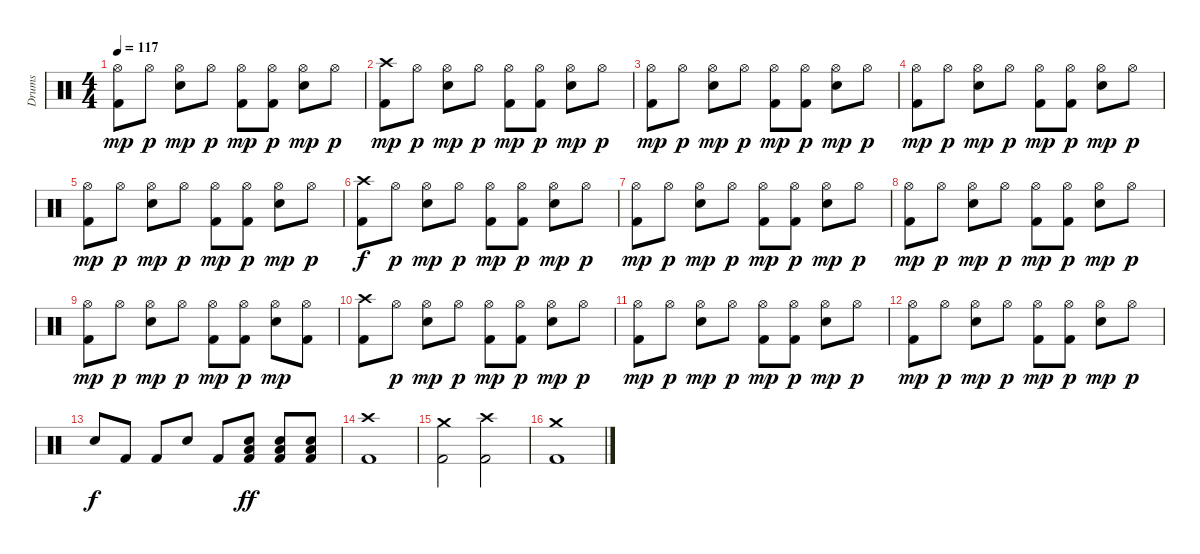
\track ("Drums" "Drums") {instrument percussion}
\staff {score}
\articulation defaults
\ts (4 4)
\tempo 117
\clef neutral
\ks c
("Hi-Hat (open)" "Kick (hit) 2").8{dy mp} "Hi-Hat (open)".8{dy p} ("Hi-Hat (open)" "Snare (hit) 2").8{dy mp} "Hi-Hat (open)".8{dy p} ("Hi-Hat (open)" "Kick (hit) 2").8{dy mp} ("Hi-Hat (open)" "Kick (hit) 2").8{dy p} ("Hi-Hat (open)" "Snare (hit) 2").8{dy mp} "Hi-Hat (open)".8{dy p} |
("Crash high (hit)" "Kick (hit) 2").8{dy mp} "Hi-Hat (open)".8{dy p} ("Hi-Hat (open)" "Snare (hit) 2").8{dy mp} "Hi-Hat (open)".8{dy p} ("Hi-Hat (open)" "Kick (hit) 2").8{dy mp} ("Hi-Hat (open)" "Kick (hit) 2").8{dy p} ("Hi-Hat (open)" "Snare (hit) 2").8{dy mp} "Hi-Hat (open)".8{dy p} |
("Hi-Hat (open)" "Kick (hit) 2").8{dy mp} "Hi-Hat (open)".8{dy p} ("Hi-Hat (open)" "Snare (hit) 2").8{dy mp} "Hi-Hat (open)".8{dy p} ("Hi-Hat (open)" "Kick (hit) 2").8{dy mp} ("Hi-Hat (open)" "Kick (hit) 2").8{dy p} ("Hi-Hat (open)" "Snare (hit) 2").8{dy mp} "Hi-Hat (open)".8{dy p} |
("Hi-Hat (open)" "Kick (hit) 2").8{dy mp} "Hi-Hat (open)".8{dy p} ("Hi-Hat (open)" "Snare (hit) 2").8{dy mp} "Hi-Hat (open)".8{dy p} ("Hi-Hat (open)" "Kick (hit) 2").8{dy mp} ("Hi-Hat (open)" "Kick (hit) 2").8{dy p} ("Hi-Hat (open)" "Snare (hit) 2").8{dy mp} "Hi-Hat (open)".8{dy p} |
("Hi-Hat (open)" "Kick (hit) 2").8{dy mp} "Hi-Hat (open)".8{dy p} ("Hi-Hat (open)" "Snare (hit) 2").8{dy mp} "Hi-Hat (open)".8{dy p} ("Hi-Hat (open)" "Kick (hit) 2").8{dy mp} ("Hi-Hat (open)" "Kick (hit) 2").8{dy p} ("Hi-Hat (open)" "Snare (hit) 2").8{dy mp} "Hi-Hat (open)".8{dy p} |
("Crash high (hit)" "Kick (hit) 2").8{dy f} "Hi-Hat (open)".8{dy p} ("Hi-Hat (open)" "Snare (hit) 2").8{dy mp} "Hi-Hat (open)".8{dy p} ("Hi-Hat (open)" "Kick (hit) 2").8{dy mp} ("Hi-Hat (open)" "Kick (hit) 2").8{dy p} ("Hi-Hat (open)" "Snare (hit) 2").8{dy mp} "Hi-Hat (open)".8{dy p} |
("Hi-Hat (open)" "Kick (hit) 2").8{dy mp} "Hi-Hat (open)".8{dy p} ("Hi-Hat (open)" "Snare (hit) 2").8{dy mp} "Hi-Hat (open)".8{dy p} ("Hi-Hat (open)" "Kick (hit) 2").8{dy mp} ("Hi-Hat (open)" "Kick (hit) 2").8{dy p} ("Hi-Hat (open)" "Snare (hit) 2").8{dy mp} "Hi-Hat (open)".8{dy p} |
("Hi-Hat (open)" "Kick (hit) 2").8{dy mp} "Hi-Hat (open)".8{dy p} ("Hi-Hat (open)" "Snare (hit) 2").8{dy mp} "Hi-Hat (open)".8{dy p} ("Hi-Hat (open)" "Kick (hit) 2").8{dy mp} ("Hi-Hat (open)" "Kick (hit) 2").8{dy p} ("Hi-Hat (open)" "Snare (hit) 2").8{dy mp} "Hi-Hat (open)".8{dy p} |
("Hi-Hat (open)" "Kick (hit) 2").8{dy mp} "Hi-Hat (open)".8{dy p} ("Hi-Hat (open)" "Snare (hit) 2").8{dy mp} "Hi-Hat (open)".8{dy p} ("Hi-Hat (open)" "Kick (hit) 2").8{dy mp} ("Hi-Hat (open)" "Kick (hit) 2").8{dy p} ("Hi-Hat (open)" "Snare (hit) 2").8{dy mp} ("Hi-Hat (open)" "Kick (hit) 2").8 |
("Crash high (hit)" "Kick (hit) 2").8 "Hi-Hat (open)".8{dy p} ("Hi-Hat (open)" "Snare (hit) 2").8{dy mp} "Hi-Hat (open)".8{dy p} ("Hi-Hat (open)" "Kick (hit) 2").8{dy mp} ("Hi-Hat (open)" "Kick (hit) 2").8{dy p} ("Hi-Hat (open)" "Snare (hit) 2").8{dy mp} "Hi-Hat (open)".8{dy p} |
("Hi-Hat (open)" "Kick (hit) 2").8{dy mp} "Hi-Hat (open)".8{dy p} ("Hi-Hat (open)" "Snare (hit) 2").8{dy mp} "Hi-Hat (open)".8{dy p} ("Hi-Hat (open)" "Kick (hit) 2").8{dy mp} ("Hi-Hat (open)" "Kick (hit) 2").8{dy p} ("Hi-Hat (open)" "Snare (hit) 2").8{dy mp} "Hi-Hat (open)".8{dy p} |
("Hi-Hat (open)" "Kick (hit) 2").8{dy mp} "Hi-Hat (open)".8{dy p} ("Hi-Hat (open)" "Snare (hit) 2").8{dy mp} "Hi-Hat (open)".8{dy p} ("Hi-Hat (open)" "Kick (hit) 2").8{dy mp} ("Hi-Hat (open)" "Kick (hit) 2").8{dy p} ("Hi-Hat (open)" "Snare (hit) 2").8{dy mp} "Hi-Hat (open)".8{dy p} |
"Snare (hit) 2".8{dy f} "Kick (hit) 2".8 "Kick (hit) 2".8 "Snare (hit) 2".8 "Kick (hit) 2".8 ("Low Floor Tom (hit)" "Snare (hit) 2" "Kick (hit) 2").8{dy ff} ("Low Floor Tom (hit)" "Snare (hit) 2" "Kick (hit) 2").8 ("Low Floor Tom (hit)" "Snare (hit) 2" "Kick (hit) 2").8 |
("Crash high (hit)" "Kick (hit) 2").1 |
("Crash medium (hit)" "Kick (hit) 2").2 ("Crash high (hit)" "Kick (hit) 2").2 |
("Crash medium (hit)" "Kick (hit) 2").1
